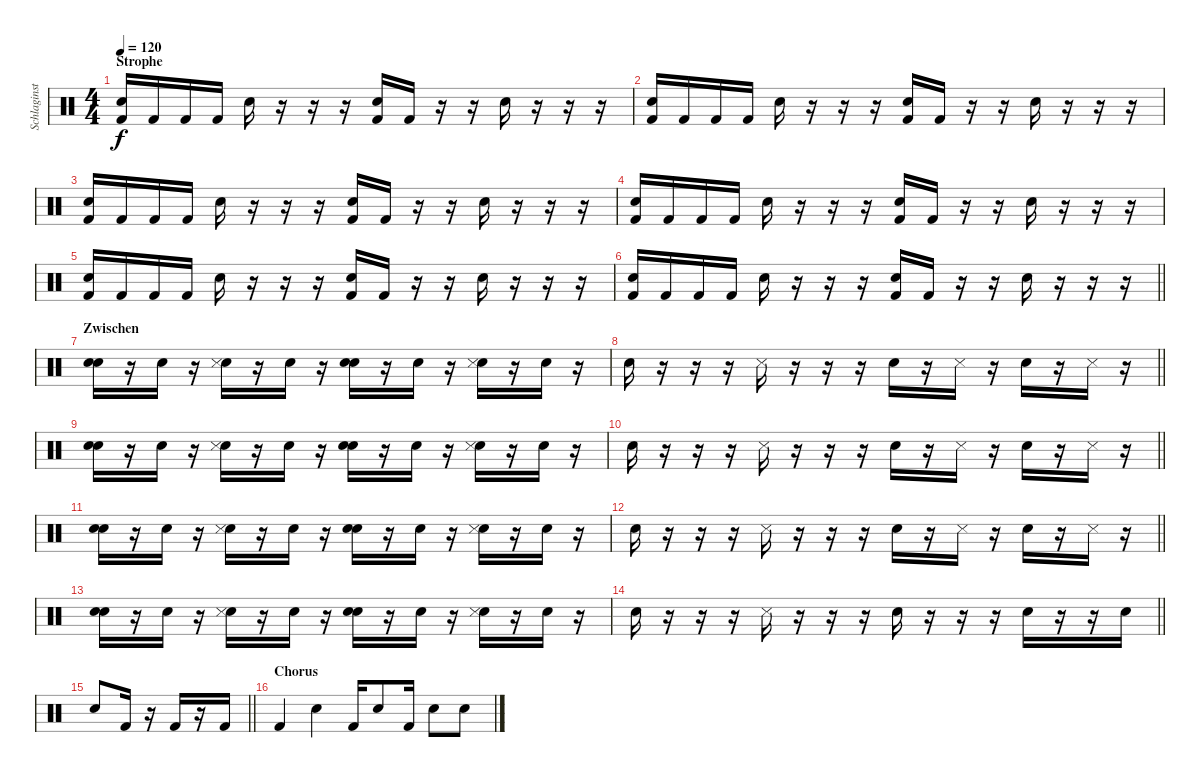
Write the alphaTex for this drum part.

\track ("Schlaginstrumente - Auswahl" "Schlaginst") {instrument percussion}
\staff {score}
\articulation defaults
\ts (4 4)
\section ("" "Strophe")
\tempo 120
\clef neutral
\ks c
("Snare (hit) 2" "Kick (hit) 2").16{dy f} "Kick (hit) 2".16 "Kick (hit) 2".16 "Kick (hit) 2".16 "Snare (hit) 2".16 r.16 r.16 r.16 ("Snare (hit) 2" "Kick (hit) 2").16 "Kick (hit) 2".16 r.16 r.16 "Snare (hit) 2".16 r.16 r.16 r.16 |
("Snare (hit) 2" "Kick (hit) 2").16 "Kick (hit) 2".16 "Kick (hit) 2".16 "Kick (hit) 2".16 "Snare (hit) 2".16 r.16 r.16 r.16 ("Snare (hit) 2" "Kick (hit) 2").16 "Kick (hit) 2".16 r.16 r.16 "Snare (hit) 2".16 r.16 r.16 r.16 |
("Snare (hit) 2" "Kick (hit) 2").16 "Kick (hit) 2".16 "Kick (hit) 2".16 "Kick (hit) 2".16 "Snare (hit) 2".16 r.16 r.16 r.16 ("Snare (hit) 2" "Kick (hit) 2").16 "Kick (hit) 2".16 r.16 r.16 "Snare (hit) 2".16 r.16 r.16 r.16 |
("Snare (hit) 2" "Kick (hit) 2").16 "Kick (hit) 2".16 "Kick (hit) 2".16 "Kick (hit) 2".16 "Snare (hit) 2".16 r.16 r.16 r.16 ("Snare (hit) 2" "Kick (hit) 2").16 "Kick (hit) 2".16 r.16 r.16 "Snare (hit) 2".16 r.16 r.16 r.16 |
("Snare (hit) 2" "Kick (hit) 2").16 "Kick (hit) 2".16 "Kick (hit) 2".16 "Kick (hit) 2".16 "Snare (hit) 2".16 r.16 r.16 r.16 ("Snare (hit) 2" "Kick (hit) 2").16 "Kick (hit) 2".16 r.16 r.16 "Snare (hit) 2".16 r.16 r.16 r.16 |
\barLineRight lightlight
("Snare (hit) 2" "Kick (hit) 2").16 "Kick (hit) 2".16 "Kick (hit) 2".16 "Kick (hit) 2".16 "Snare (hit) 2".16 r.16 r.16 r.16 ("Snare (hit) 2" "Kick (hit) 2").16 "Kick (hit) 2".16 r.16 r.16 "Snare (hit) 2".16 r.16 r.16 r.16 |
\section ("" "Zwischen")
("Snare (hit) 2" "Snare (hit) 2").16 r.16 "Snare (hit) 2".16 r.16 ("Snare (hit) 2" "Snare (side stick) 3").16 r.16 "Snare (hit) 2".16 r.16 ("Snare (hit) 2" "Snare (hit) 2").16 r.16 "Snare (hit) 2".16 r.16 ("Snare (hit) 2" "Snare (side stick) 3").16 r.16 "Snare (hit) 2".16 r.16 |
\barLineRight lightlight "Snare (hit) 2".16
r.16 r.16 r.16 "Snare (side stick) 3".16 r.16 r.16 r.16 "Snare (hit) 2".16 r.16 "Snare (side stick) 3".16 r.16 "Snare (hit) 2".16 r.16 "Snare (side stick) 3".16 r.16 |
("Snare (hit) 2" "Snare (hit) 2").16 r.16 "Snare (hit) 2".16 r.16 ("Snare (hit) 2" "Snare (side stick) 3").16 r.16 "Snare (hit) 2".16 r.16 ("Snare (hit) 2" "Snare (hit) 2").16 r.16 "Snare (hit) 2".16 r.16 ("Snare (hit) 2" "Snare (side stick) 3").16 r.16 "Snare (hit) 2".16 r.16 |
\barLineRight lightlight "Snare (hit) 2".16
r.16 r.16 r.16 "Snare (side stick) 3".16 r.16 r.16 r.16 "Snare (hit) 2".16 r.16 "Snare (side stick) 3".16 r.16 "Snare (hit) 2".16 r.16 "Snare (side stick) 3".16 r.16 |
("Snare (hit) 2" "Snare (hit) 2").16 r.16 "Snare (hit) 2".16 r.16 ("Snare (hit) 2" "Snare (side stick) 3").16 r.16 "Snare (hit) 2".16 r.16 ("Snare (hit) 2" "Snare (hit) 2").16 r.16 "Snare (hit) 2".16 r.16 ("Snare (hit) 2" "Snare (side stick) 3").16 r.16 "Snare (hit) 2".16 r.16 |
\barLineRight lightlight "Snare (hit) 2".16
r.16 r.16 r.16 "Snare (side stick) 3".16 r.16 r.16 r.16 "Snare (hit) 2".16 r.16 "Snare (side stick) 3".16 r.16 "Snare (hit) 2".16 r.16 "Snare (side stick) 3".16 r.16 |
("Snare (hit) 2" "Snare (hit) 2").16 r.16 "Snare (hit) 2".16 r.16 ("Snare (hit) 2" "Snare (side stick) 3").16 r.16 "Snare (hit) 2".16 r.16 ("Snare (hit) 2" "Snare (hit) 2").16 r.16 "Snare (hit) 2".16 r.16 ("Snare (hit) 2" "Snare (side stick) 3").16 r.16 "Snare (hit) 2".16 r.16 |
\barLineRight lightlight "Snare (hit) 2".16
r.16 r.16 r.16 "Snare (side stick) 3".16 r.16 r.16 r.16 "Snare (hit) 2".16 r.16 r.16 r.16 "Snare (hit) 2".16 r.16 r.16 "Snare (hit) 2".16 |
\barLineRight lightlight "Snare (hit) 2".8 "Kick (hit) 2".16
r.16 "Kick (hit) 2".16 r.16 "Kick (hit) 2".16 |
\section ("" "Chorus")
"Kick (hit) 2".4 "Snare (hit) 2".4 "Kick (hit) 2".16 "Snare (hit) 2".8 "Kick (hit) 2".16 "Snare (hit) 2".8 "Snare (hit) 2".8
